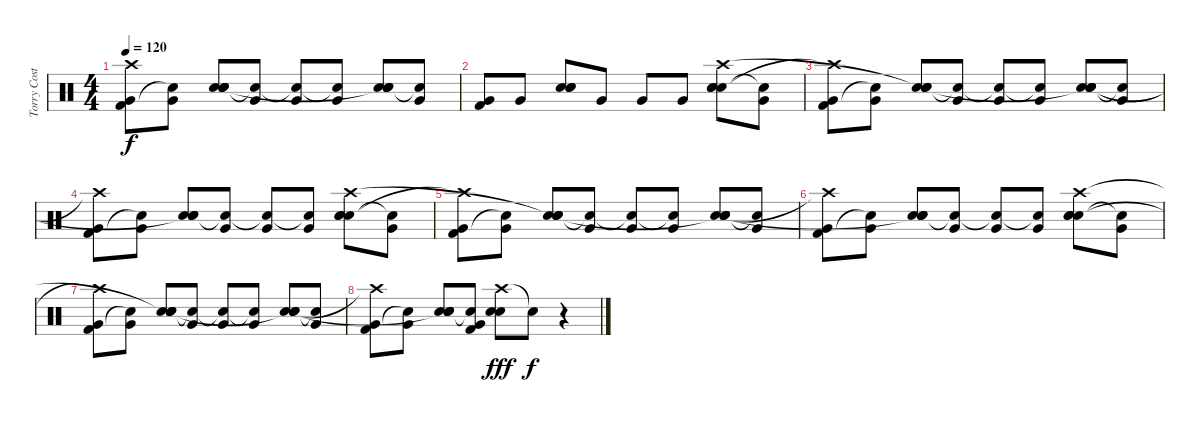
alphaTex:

\track ("Torry Costellano" "Torry Cost") {instrument percussion}
\staff {score}
\articulation defaults
\ts (4 4)
\tempo 120
\clef neutral
\ks c
("Very Low Tom (hit)" "Kick (hit) 2" "Crash high (hit)").8{dy f} ("Very Low Tom (hit)" "Snare (hit)"{t}).8 ("Hand Clap (hit)" "Hand Clap (hit)" "Electric Snare (hit)" "Snare (hit)"{t}).8 ("Very Low Tom (hit)" "Snare (hit)"{t}).8 ("Very Low Tom (hit)" "Snare (hit)"{t}).8 ("Very Low Tom (hit)" "Snare (hit)"{t}).8 ("Hand Clap (hit)" "Hand Clap (hit)" "Electric Snare (hit)" "Snare (hit)"{t}).8 ("Very Low Tom (hit)" "Snare (hit)"{t}).8 |
("Very Low Tom (hit)" "Kick (hit) 2").8 "Very Low Tom (hit)".8 ("Hand Clap (hit)" "Hand Clap (hit)" "Electric Snare (hit)").8 "Very Low Tom (hit)".8 "Very Low Tom (hit)".8 "Very Low Tom (hit)".8 ("Hand Clap (hit)" "Hand Clap (hit)" "Electric Snare (hit)" "Crash high (hit)").8 ("Very Low Tom (hit)" "Snare (hit)"{t}).8 |
("Very Low Tom (hit)" "Kick (hit) 2" "Crash high (hit)"{t}).8 ("Very Low Tom (hit)" "Snare (hit)"{t}).8 ("Hand Clap (hit)" "Hand Clap (hit)" "Electric Snare (hit)" "Snare (hit)"{t}).8 ("Very Low Tom (hit)" "Snare (hit)"{t}).8 ("Very Low Tom (hit)" "Snare (hit)"{t}).8 ("Very Low Tom (hit)" "Snare (hit)"{t}).8 ("Hand Clap (hit)" "Hand Clap (hit)" "Electric Snare (hit)" "Snare (hit)"{t}).8 ("Very Low Tom (hit)" "Snare (hit)"{t}).8 |
("Very Low Tom (hit)" "Kick (hit) 2" "Crash high (hit)"{t}).8 ("Very Low Tom (hit)" "Snare (hit)"{t}).8 ("Hand Clap (hit)" "Hand Clap (hit)" "Electric Snare (hit)" "Snare (hit)"{t}).8 ("Very Low Tom (hit)" "Snare (hit)"{t}).8 ("Very Low Tom (hit)" "Snare (hit)"{t}).8 ("Very Low Tom (hit)" "Snare (hit)"{t}).8 ("Hand Clap (hit)" "Hand Clap (hit)" "Electric Snare (hit)" "Crash high (hit)").8 ("Very Low Tom (hit)" "Snare (hit)"{t}).8 |
("Very Low Tom (hit)" "Kick (hit) 2" "Crash high (hit)"{t}).8 ("Very Low Tom (hit)" "Snare (hit)"{t}).8 ("Hand Clap (hit)" "Hand Clap (hit)" "Electric Snare (hit)" "Snare (hit)"{t}).8 ("Very Low Tom (hit)" "Snare (hit)"{t}).8 ("Very Low Tom (hit)" "Snare (hit)"{t}).8 ("Very Low Tom (hit)" "Snare (hit)"{t}).8 ("Hand Clap (hit)" "Hand Clap (hit)" "Electric Snare (hit)" "Snare (hit)"{t}).8 ("Very Low Tom (hit)" "Snare (hit)"{t}).8 |
("Very Low Tom (hit)" "Kick (hit) 2" "Crash high (hit)"{t}).8 ("Very Low Tom (hit)" "Snare (hit)"{t}).8 ("Hand Clap (hit)" "Hand Clap (hit)" "Electric Snare (hit)" "Snare (hit)"{t}).8 ("Very Low Tom (hit)" "Snare (hit)"{t}).8 ("Very Low Tom (hit)" "Snare (hit)"{t}).8 ("Very Low Tom (hit)" "Snare (hit)"{t}).8 ("Hand Clap (hit)" "Hand Clap (hit)" "Electric Snare (hit)" "Crash high (hit)").8 ("Very Low Tom (hit)" "Snare (hit)"{t}).8 |
("Very Low Tom (hit)" "Kick (hit) 2" "Crash high (hit)"{t}).8 ("Very Low Tom (hit)" "Snare (hit)"{t}).8 ("Hand Clap (hit)" "Hand Clap (hit)" "Electric Snare (hit)" "Snare (hit)"{t}).8 ("Very Low Tom (hit)" "Snare (hit)"{t}).8 ("Very Low Tom (hit)" "Snare (hit)"{t}).8 ("Very Low Tom (hit)" "Snare (hit)"{t}).8 ("Hand Clap (hit)" "Hand Clap (hit)" "Electric Snare (hit)" "Snare (hit)"{t}).8 ("Very Low Tom (hit)" "Snare (hit)"{t}).8 |
("Very Low Tom (hit)" "Kick (hit) 2" "Crash high (hit)"{t}).8 ("Very Low Tom (hit)" "Snare (hit)"{t}).8 ("Hand Clap (hit)" "Hand Clap (hit)" "Electric Snare (hit)" "Snare (hit)"{t}).8 ("Very Low Tom (hit)" "Kick (hit) 2" "Snare (hit)"{t}).8 ("Crash high (hit)" "Electric Snare (hit)" "Snare (hit)"{t}).8{dy fff} "Snare (hit)"{t}.8{dy f} r.4
